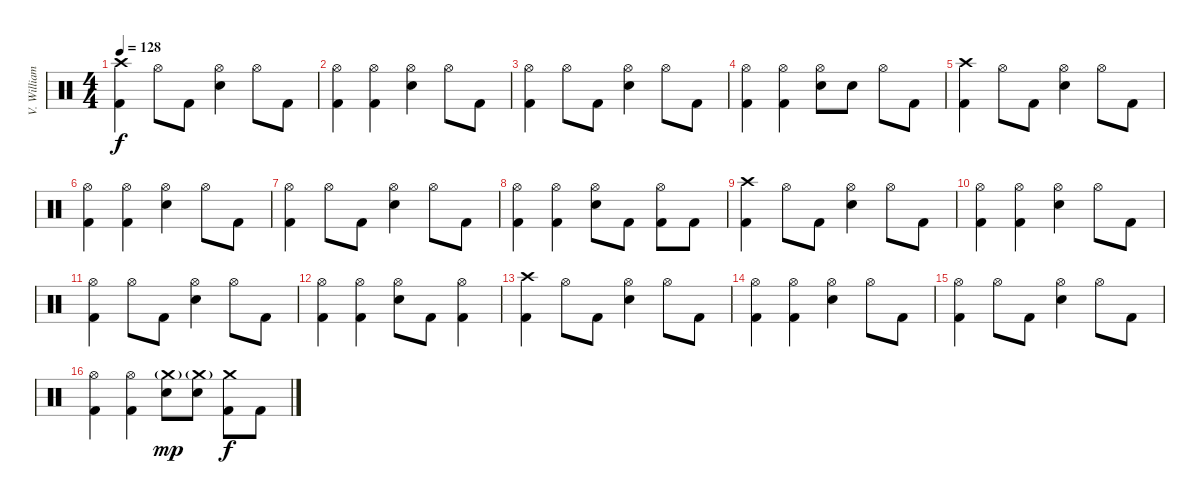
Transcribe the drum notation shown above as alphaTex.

\track ("V. Williams" "V. William") {instrument percussion}
\staff {score}
\articulation defaults
\ts (4 4)
\tempo 128
\clef neutral
\ks c
("Crash high (hit)" "Kick (hit) 2").4{dy f} "Hi-Hat (open)".8 "Kick (hit) 2".8 ("Hi-Hat (open)" "Electric Snare (hit)").4 "Hi-Hat (open)".8 "Kick (hit) 2".8 |
("Hi-Hat (open)" "Kick (hit) 2").4 ("Hi-Hat (open)" "Kick (hit) 2").4 ("Hi-Hat (open)" "Electric Snare (hit)").4 "Hi-Hat (open)".8 "Kick (hit) 2".8 |
("Hi-Hat (open)" "Kick (hit) 2").4 "Hi-Hat (open)".8 "Kick (hit) 2".8 ("Hi-Hat (open)" "Electric Snare (hit)").4 "Hi-Hat (open)".8 "Kick (hit) 2".8 |
("Hi-Hat (open)" "Kick (hit) 2").4 ("Hi-Hat (open)" "Kick (hit) 2").4 ("Hi-Hat (open)" "Electric Snare (hit)").8 "Electric Snare (hit)".8 "Hi-Hat (open)".8 "Kick (hit) 2".8 |
("Crash high (hit)" "Kick (hit) 2").4 "Hi-Hat (open)".8 "Kick (hit) 2".8 ("Hi-Hat (open)" "Electric Snare (hit)").4 "Hi-Hat (open)".8 "Kick (hit) 2".8 |
("Hi-Hat (open)" "Kick (hit) 2").4 ("Hi-Hat (open)" "Kick (hit) 2").4 ("Hi-Hat (open)" "Electric Snare (hit)").4 "Hi-Hat (open)".8 "Kick (hit) 2".8 |
("Hi-Hat (open)" "Kick (hit) 2").4 "Hi-Hat (open)".8 "Kick (hit) 2".8 ("Hi-Hat (open)" "Electric Snare (hit)").4 "Hi-Hat (open)".8 "Kick (hit) 2".8 |
("Hi-Hat (open)" "Kick (hit) 2").4 ("Hi-Hat (open)" "Kick (hit) 2").4 ("Hi-Hat (open)" "Electric Snare (hit)").8 "Kick (hit) 2".8 ("Hi-Hat (open)" "Kick (hit) 2").8 "Kick (hit) 2".8 |
("Crash high (hit)" "Kick (hit) 2").4 "Hi-Hat (open)".8 "Kick (hit) 2".8 ("Hi-Hat (open)" "Electric Snare (hit)").4 "Hi-Hat (open)".8 "Kick (hit) 2".8 |
("Hi-Hat (open)" "Kick (hit) 2").4 ("Hi-Hat (open)" "Kick (hit) 2").4 ("Hi-Hat (open)" "Electric Snare (hit)").4 "Hi-Hat (open)".8 "Kick (hit) 2".8 |
("Hi-Hat (open)" "Kick (hit) 2").4 "Hi-Hat (open)".8 "Kick (hit) 2".8 ("Hi-Hat (open)" "Electric Snare (hit)").4 "Hi-Hat (open)".8 "Kick (hit) 2".8 |
("Hi-Hat (open)" "Kick (hit) 2").4 ("Hi-Hat (open)" "Kick (hit) 2").4 ("Hi-Hat (open)" "Electric Snare (hit)").8 "Kick (hit) 2".8 ("Hi-Hat (open)" "Kick (hit) 2").4 |
("Crash high (hit)" "Kick (hit) 2").4 "Hi-Hat (open)".8 "Kick (hit) 2".8 ("Hi-Hat (open)" "Electric Snare (hit)").4 "Hi-Hat (open)".8 "Kick (hit) 2".8 |
("Hi-Hat (open)" "Kick (hit) 2").4 ("Hi-Hat (open)" "Kick (hit) 2").4 ("Hi-Hat (open)" "Electric Snare (hit)").4 "Hi-Hat (open)".8 "Kick (hit) 2".8 |
("Hi-Hat (open)" "Kick (hit) 2").4 "Hi-Hat (open)".8 "Kick (hit) 2".8 ("Hi-Hat (open)" "Electric Snare (hit)").4 "Hi-Hat (open)".8 "Kick (hit) 2".8 |
("Hi-Hat (open)" "Kick (hit) 2").4 ("Hi-Hat (open)" "Kick (hit) 2").4 ("Crash medium (hit)"{g} "Electric Snare (hit)").8{dy mp} ("Crash medium (hit)"{g} "Electric Snare (hit)").8 ("Crash medium (hit)" "Kick (hit) 2").8{dy f} "Kick (hit) 2".8
